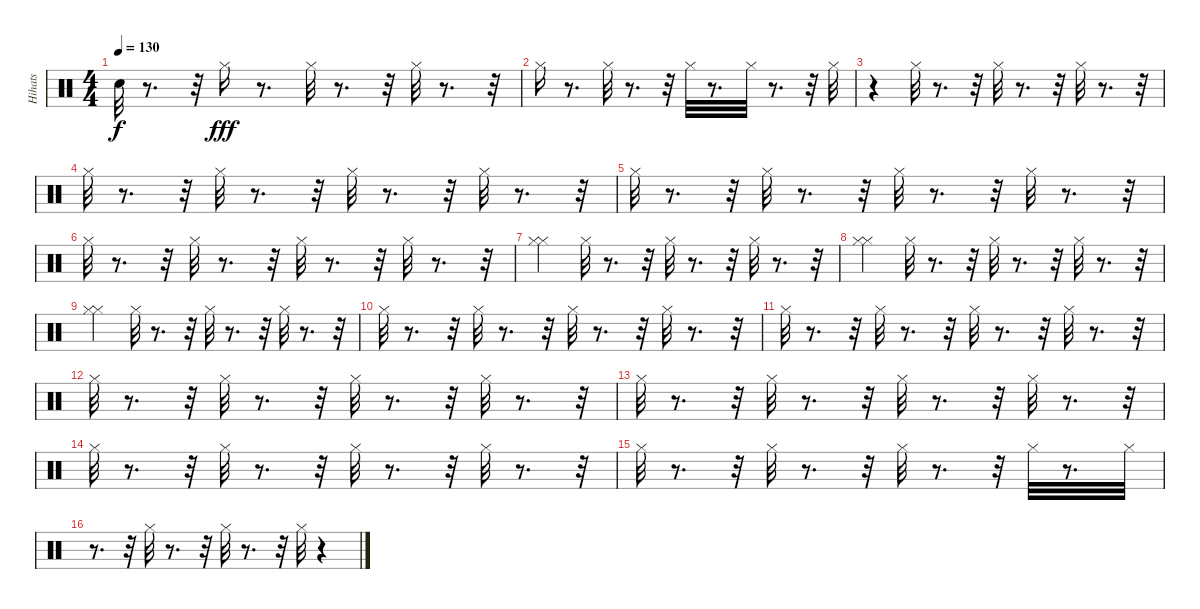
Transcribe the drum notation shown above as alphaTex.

\track ("Hihats" "Hihats") {instrument percussion}
\staff {score}
\articulation defaults
\ts (4 4)
\tempo 130
\clef neutral
\ks c "Snare (hit)"{t}.32{dy f}
r.8{d} r.32 "Hi-Hat (closed)".16{dy fff} r.8{d} "Hi-Hat (closed)".32 r.8{d} r.32 "Hi-Hat (closed)".32 r.8{d} r.32 |
"Hi-Hat (closed)".16 r.8{d} "Hi-Hat (closed)".32 r.8{d} r.32 "Hi-Hat (closed)".32 r.8{d} "Hi-Hat (closed)".32 r.8{d} r.32 "Hi-Hat (closed)".32 |
r.4 "Hi-Hat (closed)".32 r.8{d} r.32 "Hi-Hat (closed)".32 r.8{d} r.32 "Hi-Hat (closed)".32 r.8{d} r.32 |
"Hi-Hat (closed)".32 r.8{d} r.32 "Hi-Hat (closed)".32 r.8{d} r.32 "Hi-Hat (closed)".32 r.8{d} r.32 "Hi-Hat (closed)".32 r.8{d} r.32 |
"Hi-Hat (closed)".32 r.8{d} r.32 "Hi-Hat (closed)".32 r.8{d} r.32 "Hi-Hat (closed)".32 r.8{d} r.32 "Hi-Hat (closed)".32 r.8{d} r.32 |
"Hi-Hat (closed)".32 r.8{d} r.32 "Hi-Hat (closed)".32 r.8{d} r.32 "Hi-Hat (closed)".32 r.8{d} r.32 "Hi-Hat (closed)".32 r.8{d} r.32 |
("Hi-Hat (closed)" "Hi-Hat (closed)").4 "Hi-Hat (closed)".32 r.8{d} r.32 "Hi-Hat (closed)".32 r.8{d} r.32 "Hi-Hat (closed)".32 r.8{d} r.32 |
("Hi-Hat (closed)" "Hi-Hat (closed)").4 "Hi-Hat (closed)".32 r.8{d} r.32 "Hi-Hat (closed)".32 r.8{d} r.32 "Hi-Hat (closed)".32 r.8{d} r.32 |
("Hi-Hat (closed)" "Hi-Hat (closed)").4 "Hi-Hat (closed)".32 r.8{d} r.32 "Hi-Hat (closed)".32 r.8{d} r.32 "Hi-Hat (closed)".32 r.8{d} r.32 |
"Hi-Hat (closed)".32 r.8{d} r.32 "Hi-Hat (closed)".32 r.8{d} r.32 "Hi-Hat (closed)".32 r.8{d} r.32 "Hi-Hat (closed)".32 r.8{d} r.32 |
"Hi-Hat (closed)".32 r.8{d} r.32 "Hi-Hat (closed)".32 r.8{d} r.32 "Hi-Hat (closed)".32 r.8{d} r.32 "Hi-Hat (closed)".32 r.8{d} r.32 |
"Hi-Hat (closed)".32 r.8{d} r.32 "Hi-Hat (closed)".32 r.8{d} r.32 "Hi-Hat (closed)".32 r.8{d} r.32 "Hi-Hat (closed)".32 r.8{d} r.32 |
"Hi-Hat (closed)".32 r.8{d} r.32 "Hi-Hat (closed)".32 r.8{d} r.32 "Hi-Hat (closed)".32 r.8{d} r.32 "Hi-Hat (closed)".32 r.8{d} r.32 |
"Hi-Hat (closed)".32 r.8{d} r.32 "Hi-Hat (closed)".32 r.8{d} r.32 "Hi-Hat (closed)".32 r.8{d} r.32 "Hi-Hat (closed)".32 r.8{d} r.32 |
"Hi-Hat (closed)".32 r.8{d} r.32 "Hi-Hat (closed)".32 r.8{d} r.32 "Hi-Hat (closed)".32 r.8{d} r.32 "Hi-Hat (closed)".32 r.8{d} "Hi-Hat (closed)".32 |
r.8{d} r.32 "Hi-Hat (closed)".32 r.8{d} r.32 "Hi-Hat (closed)".32 r.8{d} r.32 "Hi-Hat (closed)".32 r.4
